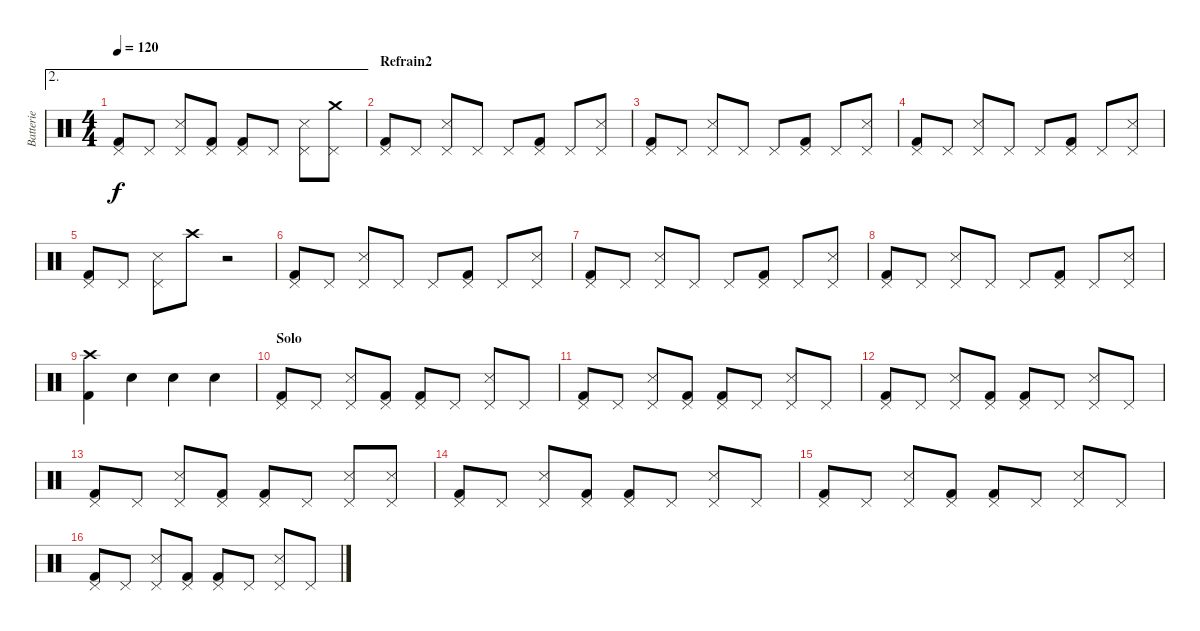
\track ("Batterie" "Batterie") {instrument percussion}
\staff {score}
\articulation defaults
\ae 2
\ts (4 4)
\tempo 120
\clef neutral
\ks c
("Pedal Hi-Hat (hit)" "Kick (hit) 2").8{dy f} "Pedal Hi-Hat (hit)".8 ("Pedal Hi-Hat (hit)" "Snare (side stick) 3").8 ("Pedal Hi-Hat (hit)" "Kick (hit) 2").8 ("Pedal Hi-Hat (hit)" "Kick (hit) 2").8 "Pedal Hi-Hat (hit)".8 ("Pedal Hi-Hat (hit)" "Snare (side stick) 3").8 ("Pedal Hi-Hat (hit)" "Crash medium (hit)").8 |
\section ("" "Refrain2")
("Pedal Hi-Hat (hit)" "Kick (hit) 2").8 "Pedal Hi-Hat (hit)".8 ("Pedal Hi-Hat (hit)" "Snare (side stick) 3").8 "Pedal Hi-Hat (hit)".8 "Pedal Hi-Hat (hit)".8 ("Pedal Hi-Hat (hit)" "Kick (hit) 2").8 "Pedal Hi-Hat (hit)".8 ("Pedal Hi-Hat (hit)" "Snare (side stick) 3").8 |
("Pedal Hi-Hat (hit)" "Kick (hit) 2").8 "Pedal Hi-Hat (hit)".8 ("Pedal Hi-Hat (hit)" "Snare (side stick) 3").8 "Pedal Hi-Hat (hit)".8 "Pedal Hi-Hat (hit)".8 ("Pedal Hi-Hat (hit)" "Kick (hit) 2").8 "Pedal Hi-Hat (hit)".8 ("Pedal Hi-Hat (hit)" "Snare (side stick) 3").8 |
("Pedal Hi-Hat (hit)" "Kick (hit) 2").8 "Pedal Hi-Hat (hit)".8 ("Pedal Hi-Hat (hit)" "Snare (side stick) 3").8 "Pedal Hi-Hat (hit)".8 "Pedal Hi-Hat (hit)".8 ("Pedal Hi-Hat (hit)" "Kick (hit) 2").8 "Pedal Hi-Hat (hit)".8 ("Pedal Hi-Hat (hit)" "Snare (side stick) 3").8 |
("Pedal Hi-Hat (hit)" "Kick (hit) 2").8 "Pedal Hi-Hat (hit)".8 ("Pedal Hi-Hat (hit)" "Snare (side stick) 3").8 "Crash high (hit)".8 r.2 |
("Pedal Hi-Hat (hit)" "Kick (hit) 2").8 "Pedal Hi-Hat (hit)".8 ("Pedal Hi-Hat (hit)" "Snare (side stick) 3").8 "Pedal Hi-Hat (hit)".8 "Pedal Hi-Hat (hit)".8 ("Pedal Hi-Hat (hit)" "Kick (hit) 2").8 "Pedal Hi-Hat (hit)".8 ("Pedal Hi-Hat (hit)" "Snare (side stick) 3").8 |
("Pedal Hi-Hat (hit)" "Kick (hit) 2").8 "Pedal Hi-Hat (hit)".8 ("Pedal Hi-Hat (hit)" "Snare (side stick) 3").8 "Pedal Hi-Hat (hit)".8 "Pedal Hi-Hat (hit)".8 ("Pedal Hi-Hat (hit)" "Kick (hit) 2").8 "Pedal Hi-Hat (hit)".8 ("Pedal Hi-Hat (hit)" "Snare (side stick) 3").8 |
("Pedal Hi-Hat (hit)" "Kick (hit) 2").8 "Pedal Hi-Hat (hit)".8 ("Pedal Hi-Hat (hit)" "Snare (side stick) 3").8 "Pedal Hi-Hat (hit)".8 "Pedal Hi-Hat (hit)".8 ("Pedal Hi-Hat (hit)" "Kick (hit) 2").8 "Pedal Hi-Hat (hit)".8 ("Pedal Hi-Hat (hit)" "Snare (side stick) 3").8 |
("Crash high (hit)" "Kick (hit) 2").4 "Snare (hit) 2".4 "Snare (hit) 2".4 "Snare (hit) 2".4 |
\section ("" "Solo")
("Pedal Hi-Hat (hit)" "Kick (hit) 2").8 "Pedal Hi-Hat (hit)".8 ("Pedal Hi-Hat (hit)" "Snare (side stick) 3").8 ("Pedal Hi-Hat (hit)" "Kick (hit) 2").8 ("Pedal Hi-Hat (hit)" "Kick (hit) 2").8 "Pedal Hi-Hat (hit)".8 ("Pedal Hi-Hat (hit)" "Snare (side stick) 3").8 "Pedal Hi-Hat (hit)".8 |
("Pedal Hi-Hat (hit)" "Kick (hit) 2").8 "Pedal Hi-Hat (hit)".8 ("Pedal Hi-Hat (hit)" "Snare (side stick) 3").8 ("Pedal Hi-Hat (hit)" "Kick (hit) 2").8 ("Pedal Hi-Hat (hit)" "Kick (hit) 2").8 "Pedal Hi-Hat (hit)".8 ("Pedal Hi-Hat (hit)" "Snare (side stick) 3").8 "Pedal Hi-Hat (hit)".8 |
("Pedal Hi-Hat (hit)" "Kick (hit) 2").8 "Pedal Hi-Hat (hit)".8 ("Pedal Hi-Hat (hit)" "Snare (side stick) 3").8 ("Pedal Hi-Hat (hit)" "Kick (hit) 2").8 ("Pedal Hi-Hat (hit)" "Kick (hit) 2").8 "Pedal Hi-Hat (hit)".8 ("Pedal Hi-Hat (hit)" "Snare (side stick) 3").8 "Pedal Hi-Hat (hit)".8 |
("Pedal Hi-Hat (hit)" "Kick (hit) 2").8 "Pedal Hi-Hat (hit)".8 ("Pedal Hi-Hat (hit)" "Snare (side stick) 3").8 ("Pedal Hi-Hat (hit)" "Kick (hit) 2").8 ("Pedal Hi-Hat (hit)" "Kick (hit) 2").8 "Pedal Hi-Hat (hit)".8 ("Pedal Hi-Hat (hit)" "Snare (side stick) 3").8 ("Pedal Hi-Hat (hit)" "Snare (side stick) 3").8 |
("Pedal Hi-Hat (hit)" "Kick (hit) 2").8 "Pedal Hi-Hat (hit)".8 ("Pedal Hi-Hat (hit)" "Snare (side stick) 3").8 ("Pedal Hi-Hat (hit)" "Kick (hit) 2").8 ("Pedal Hi-Hat (hit)" "Kick (hit) 2").8 "Pedal Hi-Hat (hit)".8 ("Pedal Hi-Hat (hit)" "Snare (side stick) 3").8 "Pedal Hi-Hat (hit)".8 |
("Pedal Hi-Hat (hit)" "Kick (hit) 2").8 "Pedal Hi-Hat (hit)".8 ("Pedal Hi-Hat (hit)" "Snare (side stick) 3").8 ("Pedal Hi-Hat (hit)" "Kick (hit) 2").8 ("Pedal Hi-Hat (hit)" "Kick (hit) 2").8 "Pedal Hi-Hat (hit)".8 ("Pedal Hi-Hat (hit)" "Snare (side stick) 3").8 "Pedal Hi-Hat (hit)".8 |
("Pedal Hi-Hat (hit)" "Kick (hit) 2").8 "Pedal Hi-Hat (hit)".8 ("Pedal Hi-Hat (hit)" "Snare (side stick) 3").8 ("Pedal Hi-Hat (hit)" "Kick (hit) 2").8 ("Pedal Hi-Hat (hit)" "Kick (hit) 2").8 "Pedal Hi-Hat (hit)".8 ("Pedal Hi-Hat (hit)" "Snare (side stick) 3").8 "Pedal Hi-Hat (hit)".8
